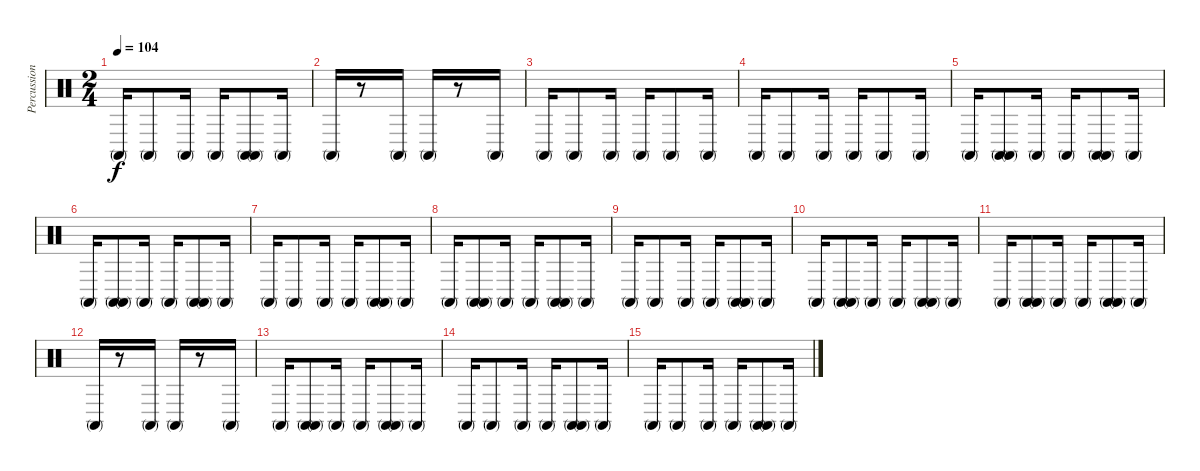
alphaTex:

\track ("Percussion" "Percussion") {instrument percussion}
\staff {score}
\articulation defaults
\ts (2 4)
\tempo 104
\clef neutral
\ks c "Conga high (mute)".16{dy f} "Conga high (mute)".8 "Conga high (mute)".16 "Conga high (mute)".16
("Conga high (mute)" "Conga high (mute)").8 "Conga high (mute)".16 |
"Conga high (mute)".16 r.8 "Conga high (mute)".16 "Conga high (mute)".16 r.8 "Conga high (mute)".16 |
"Conga high (mute)".16 "Conga high (mute)".8 "Conga high (mute)".16 "Conga high (mute)".16 "Conga high (mute)".8 "Conga high (mute)".16 |
"Conga high (mute)".16 "Conga high (mute)".8 "Conga high (mute)".16 "Conga high (mute)".16 "Conga high (mute)".8 "Conga high (mute)".16 |
"Conga high (mute)".16 ("Conga high (mute)" "Conga high (mute)").8 "Conga high (mute)".16 "Conga high (mute)".16 ("Conga high (mute)" "Conga high (mute)").8 "Conga high (mute)".16 |
"Conga high (mute)".16 ("Conga high (mute)" "Conga high (mute)").8 "Conga high (mute)".16 "Conga high (mute)".16 ("Conga high (mute)" "Conga high (mute)").8 "Conga high (mute)".16 |
"Conga high (mute)".16 "Conga high (mute)".8 "Conga high (mute)".16 "Conga high (mute)".16 ("Conga high (mute)" "Conga high (mute)").8 "Conga high (mute)".16 |
"Conga high (mute)".16 ("Conga high (mute)" "Conga high (mute)").8 "Conga high (mute)".16 "Conga high (mute)".16 ("Conga high (mute)" "Conga high (mute)").8 "Conga high (mute)".16 |
"Conga high (mute)".16 "Conga high (mute)".8 "Conga high (mute)".16 "Conga high (mute)".16 ("Conga high (mute)" "Conga high (mute)").8 "Conga high (mute)".16 |
"Conga high (mute)".16 ("Conga high (mute)" "Conga high (mute)").8 "Conga high (mute)".16 "Conga high (mute)".16 ("Conga high (mute)" "Conga high (mute)").8 "Conga high (mute)".16 |
"Conga high (mute)".16 ("Conga high (mute)" "Conga high (mute)").8 "Conga high (mute)".16 "Conga high (mute)".16 ("Conga high (mute)" "Conga high (mute)").8 "Conga high (mute)".16 |
"Conga high (mute)".16 r.8 "Conga high (mute)".16 "Conga high (mute)".16 r.8 "Conga high (mute)".16 |
"Conga high (mute)".16 ("Conga high (mute)" "Conga high (mute)").8 "Conga high (mute)".16 "Conga high (mute)".16 ("Conga high (mute)" "Conga high (mute)").8 "Conga high (mute)".16 |
"Conga high (mute)".16 "Conga high (mute)".8 "Conga high (mute)".16 "Conga high (mute)".16 ("Conga high (mute)" "Conga high (mute)").8 "Conga high (mute)".16 |
"Conga high (mute)".16 "Conga high (mute)".8 "Conga high (mute)".16 "Conga high (mute)".16 ("Conga high (mute)" "Conga high (mute)").8 "Conga high (mute)".16
